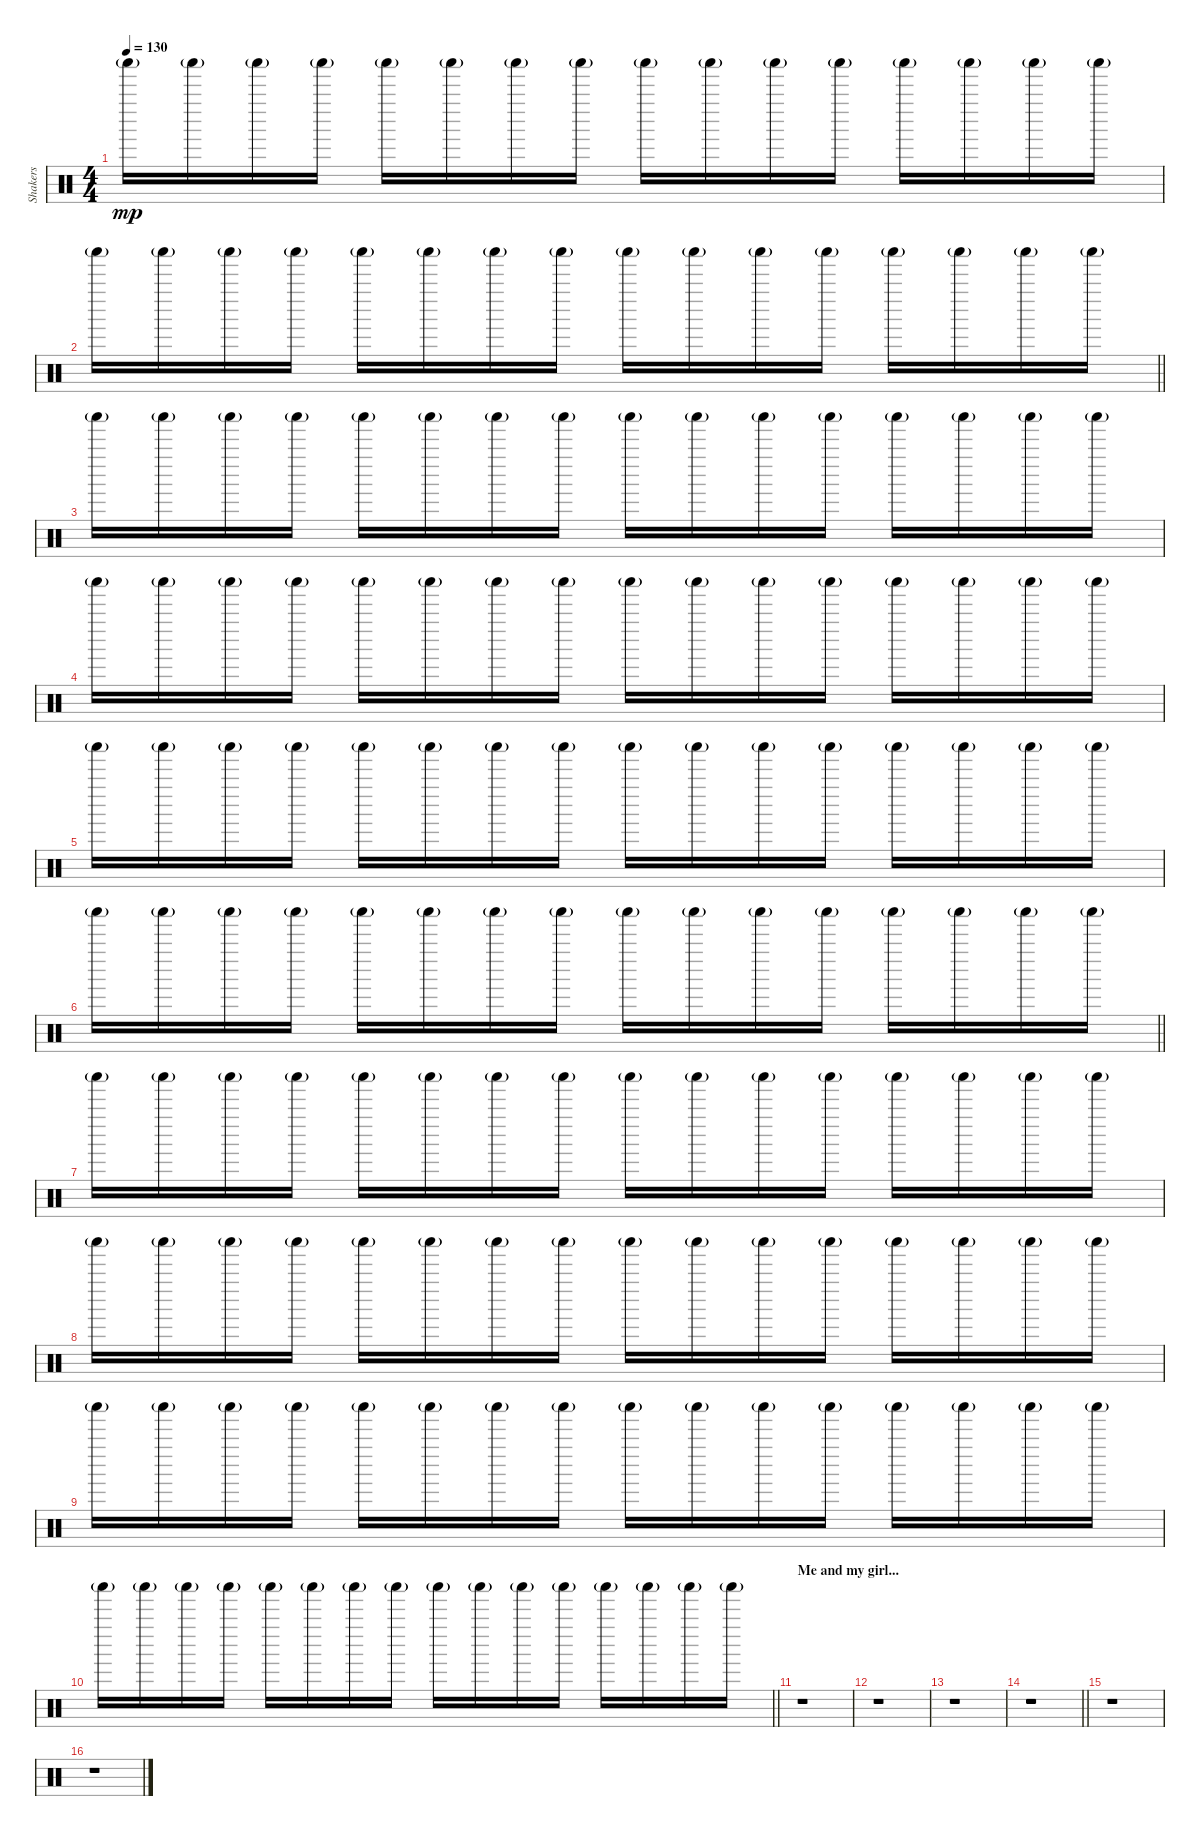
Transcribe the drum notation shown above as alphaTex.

\track ("Shakers" "Shakers") {instrument percussion}
\staff {score}
\articulation defaults
\ts (4 4)
\tempo 130
\clef neutral
\ks c "Shaker (hit)"{g}.16{dy mp} "Shaker (hit)"{g}.16 "Shaker (hit)"{g}.16 "Shaker (hit)"{g}.16 "Shaker (hit)"{g}.16 "Shaker (hit)"{g}.16 "Shaker (hit)"{g}.16 "Shaker (hit)"{g}.16 "Shaker (hit)"{g}.16 "Shaker (hit)"{g}.16 "Shaker (hit)"{g}.16 "Shaker (hit)"{g}.16 "Shaker (hit)"{g}.16 "Shaker (hit)"{g}.16 "Shaker (hit)"{g}.16 "Shaker (hit)"{g}.16
|
\barLineRight lightlight "Shaker (hit)"{g}.16 "Shaker (hit)"{g}.16 "Shaker (hit)"{g}.16 "Shaker (hit)"{g}.16 "Shaker (hit)"{g}.16 "Shaker (hit)"{g}.16 "Shaker (hit)"{g}.16 "Shaker (hit)"{g}.16 "Shaker (hit)"{g}.16 "Shaker (hit)"{g}.16 "Shaker (hit)"{g}.16 "Shaker (hit)"{g}.16 "Shaker (hit)"{g}.16 "Shaker (hit)"{g}.16 "Shaker (hit)"{g}.16 "Shaker (hit)"{g}.16
|
"Shaker (hit)"{g}.16 "Shaker (hit)"{g}.16 "Shaker (hit)"{g}.16 "Shaker (hit)"{g}.16 "Shaker (hit)"{g}.16 "Shaker (hit)"{g}.16 "Shaker (hit)"{g}.16 "Shaker (hit)"{g}.16 "Shaker (hit)"{g}.16 "Shaker (hit)"{g}.16 "Shaker (hit)"{g}.16 "Shaker (hit)"{g}.16 "Shaker (hit)"{g}.16 "Shaker (hit)"{g}.16 "Shaker (hit)"{g}.16 "Shaker (hit)"{g}.16 |
"Shaker (hit)"{g}.16 "Shaker (hit)"{g}.16 "Shaker (hit)"{g}.16 "Shaker (hit)"{g}.16 "Shaker (hit)"{g}.16 "Shaker (hit)"{g}.16 "Shaker (hit)"{g}.16 "Shaker (hit)"{g}.16 "Shaker (hit)"{g}.16 "Shaker (hit)"{g}.16 "Shaker (hit)"{g}.16 "Shaker (hit)"{g}.16 "Shaker (hit)"{g}.16 "Shaker (hit)"{g}.16 "Shaker (hit)"{g}.16 "Shaker (hit)"{g}.16 |
"Shaker (hit)"{g}.16 "Shaker (hit)"{g}.16 "Shaker (hit)"{g}.16 "Shaker (hit)"{g}.16 "Shaker (hit)"{g}.16 "Shaker (hit)"{g}.16 "Shaker (hit)"{g}.16 "Shaker (hit)"{g}.16 "Shaker (hit)"{g}.16 "Shaker (hit)"{g}.16 "Shaker (hit)"{g}.16 "Shaker (hit)"{g}.16 "Shaker (hit)"{g}.16 "Shaker (hit)"{g}.16 "Shaker (hit)"{g}.16 "Shaker (hit)"{g}.16 |
\barLineRight lightlight "Shaker (hit)"{g}.16 "Shaker (hit)"{g}.16 "Shaker (hit)"{g}.16 "Shaker (hit)"{g}.16 "Shaker (hit)"{g}.16 "Shaker (hit)"{g}.16 "Shaker (hit)"{g}.16 "Shaker (hit)"{g}.16 "Shaker (hit)"{g}.16 "Shaker (hit)"{g}.16 "Shaker (hit)"{g}.16 "Shaker (hit)"{g}.16 "Shaker (hit)"{g}.16 "Shaker (hit)"{g}.16 "Shaker (hit)"{g}.16 "Shaker (hit)"{g}.16
|
"Shaker (hit)"{g}.16 "Shaker (hit)"{g}.16 "Shaker (hit)"{g}.16 "Shaker (hit)"{g}.16 "Shaker (hit)"{g}.16 "Shaker (hit)"{g}.16 "Shaker (hit)"{g}.16 "Shaker (hit)"{g}.16 "Shaker (hit)"{g}.16 "Shaker (hit)"{g}.16 "Shaker (hit)"{g}.16 "Shaker (hit)"{g}.16 "Shaker (hit)"{g}.16 "Shaker (hit)"{g}.16 "Shaker (hit)"{g}.16 "Shaker (hit)"{g}.16 |
"Shaker (hit)"{g}.16 "Shaker (hit)"{g}.16 "Shaker (hit)"{g}.16 "Shaker (hit)"{g}.16 "Shaker (hit)"{g}.16 "Shaker (hit)"{g}.16 "Shaker (hit)"{g}.16 "Shaker (hit)"{g}.16 "Shaker (hit)"{g}.16 "Shaker (hit)"{g}.16 "Shaker (hit)"{g}.16 "Shaker (hit)"{g}.16 "Shaker (hit)"{g}.16 "Shaker (hit)"{g}.16 "Shaker (hit)"{g}.16 "Shaker (hit)"{g}.16 |
"Shaker (hit)"{g}.16 "Shaker (hit)"{g}.16 "Shaker (hit)"{g}.16 "Shaker (hit)"{g}.16 "Shaker (hit)"{g}.16 "Shaker (hit)"{g}.16 "Shaker (hit)"{g}.16 "Shaker (hit)"{g}.16 "Shaker (hit)"{g}.16 "Shaker (hit)"{g}.16 "Shaker (hit)"{g}.16 "Shaker (hit)"{g}.16 "Shaker (hit)"{g}.16 "Shaker (hit)"{g}.16 "Shaker (hit)"{g}.16 "Shaker (hit)"{g}.16 |
\barLineRight lightlight "Shaker (hit)"{g}.16 "Shaker (hit)"{g}.16 "Shaker (hit)"{g}.16 "Shaker (hit)"{g}.16 "Shaker (hit)"{g}.16 "Shaker (hit)"{g}.16 "Shaker (hit)"{g}.16 "Shaker (hit)"{g}.16 "Shaker (hit)"{g}.16 "Shaker (hit)"{g}.16 "Shaker (hit)"{g}.16 "Shaker (hit)"{g}.16 "Shaker (hit)"{g}.16 "Shaker (hit)"{g}.16 "Shaker (hit)"{g}.16 "Shaker (hit)"{g}.16
|
\section ("" "Me and my girl...")
r.1 |
r.1 |
r.1 |
\barLineRight lightlight
r.1 |
r.1 |
r.1
